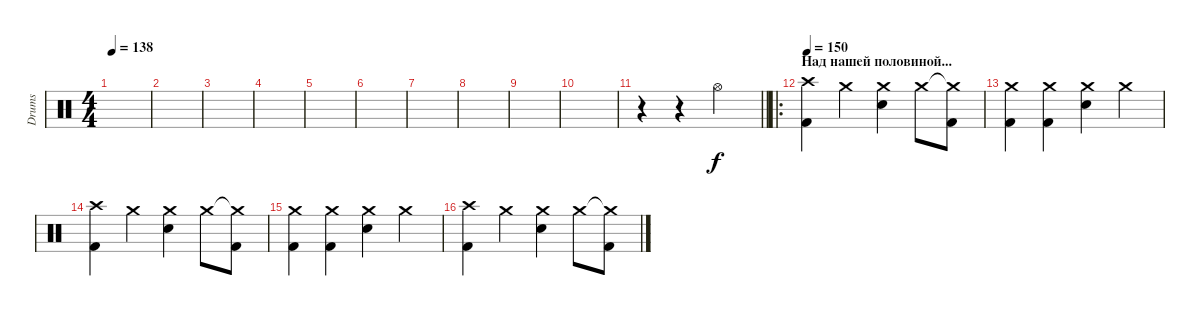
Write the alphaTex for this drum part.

\track ("Drums" "Drums") {instrument percussion}
\staff {score}
\articulation defaults
\ts (4 4)
\tempo 138
\clef neutral
\ks c
|
|
|
|
|
|
|
|
|
|
\barLineRight lightlight
r.4 r.4 "Hi-Hat (open)".2 |
\ro
\section ("" "Над нашей половиной...")
\tempo 150
("Crash high (hit)" "Kick (hit) 2").4 "Crash medium (hit)".4 ("Crash medium (hit)" "Electric Snare (hit)").4 "Crash medium (hit)".8 ("Crash medium (hit)"{t} "Kick (hit) 2").8 |
("Crash medium (hit)" "Kick (hit) 2").4 ("Crash medium (hit)" "Kick (hit) 2").4 ("Crash medium (hit)" "Electric Snare (hit)").4 "Crash medium (hit)".4 |
("Crash high (hit)" "Kick (hit) 2").4 "Crash medium (hit)".4 ("Crash medium (hit)" "Electric Snare (hit)").4 "Crash medium (hit)".8 ("Crash medium (hit)"{t} "Kick (hit) 2").8 |
("Crash medium (hit)" "Kick (hit) 2").4 ("Crash medium (hit)" "Kick (hit) 2").4 ("Crash medium (hit)" "Electric Snare (hit)").4 "Crash medium (hit)".4 |
("Crash high (hit)" "Kick (hit) 2").4 "Crash medium (hit)".4 ("Crash medium (hit)" "Electric Snare (hit)").4 "Crash medium (hit)".8 ("Crash medium (hit)"{t} "Kick (hit) 2").8
